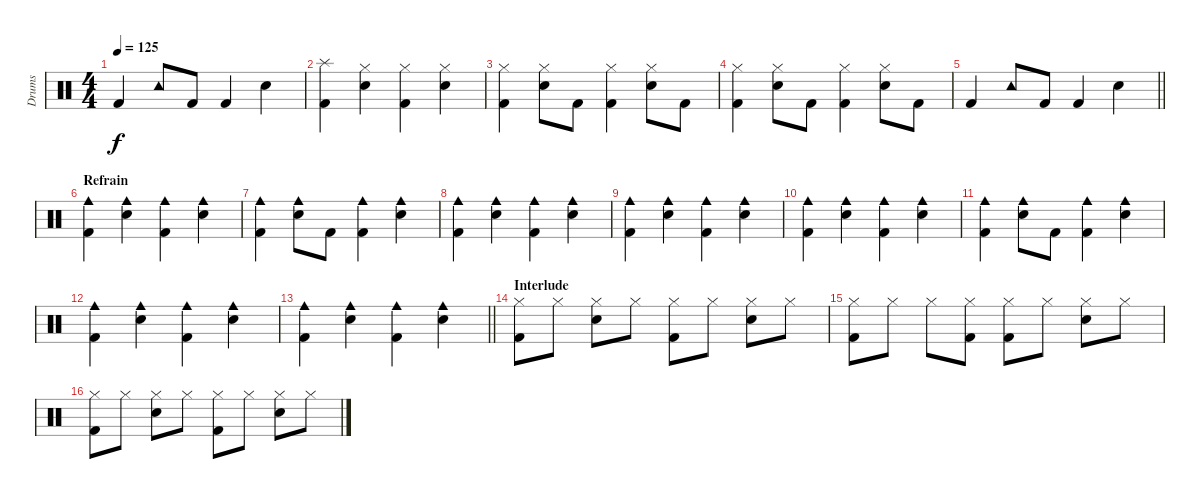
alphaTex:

\track ("Drums" "Drums") {instrument percussion}
\staff {score}
\articulation defaults
\ts (4 4)
\tempo 125
\clef neutral
\ks c "Kick (hit) 2".4{dy f} "Tambourine (hit)".8 "Kick (hit) 2".8 "Kick (hit) 2".4 "Snare (hit) 2".4
|
("Splash (hit)" "Kick (hit) 2").4 ("Hi-Hat (closed)" "Snare (hit) 2").4 ("Hi-Hat (closed)" "Kick (hit) 2").4 ("Hi-Hat (closed)" "Snare (hit) 2").4 |
("Hi-Hat (closed)" "Kick (hit) 2").4 ("Hi-Hat (closed)" "Snare (hit) 2").8 "Kick (hit) 2".8 ("Hi-Hat (closed)" "Kick (hit) 2").4 ("Hi-Hat (closed)" "Snare (hit) 2").8 "Kick (hit) 2".8 |
("Hi-Hat (closed)" "Kick (hit) 2").4 ("Hi-Hat (closed)" "Snare (hit) 2").8 "Kick (hit) 2".8 ("Hi-Hat (closed)" "Kick (hit) 2").4 ("Hi-Hat (closed)" "Snare (hit) 2").8 "Kick (hit) 2".8 |
\barLineRight lightlight "Kick (hit) 2".4 "Tambourine (hit)".8 "Kick (hit) 2".8 "Kick (hit) 2".4 "Snare (hit) 2".4
|
\section ("" "Refrain")
("Cowbell medium (hit)" "Kick (hit) 2").4 ("Cowbell medium (hit)" "Snare (hit) 2").4 ("Cowbell medium (hit)" "Kick (hit) 2").4 ("Cowbell medium (hit)" "Snare (hit) 2").4 |
("Cowbell medium (hit)" "Kick (hit) 2").4 ("Cowbell medium (hit)" "Snare (hit) 2").8 "Kick (hit) 2".8 ("Cowbell medium (hit)" "Kick (hit) 2").4 ("Cowbell medium (hit)" "Snare (hit) 2").4 |
("Cowbell medium (hit)" "Kick (hit) 2").4 ("Cowbell medium (hit)" "Snare (hit) 2").4 ("Cowbell medium (hit)" "Kick (hit) 2").4 ("Cowbell medium (hit)" "Snare (hit) 2").4 |
("Cowbell medium (hit)" "Kick (hit) 2").4 ("Cowbell medium (hit)" "Snare (hit) 2").4 ("Cowbell medium (hit)" "Kick (hit) 2").4 ("Cowbell medium (hit)" "Snare (hit) 2").4 |
("Cowbell medium (hit)" "Kick (hit) 2").4 ("Cowbell medium (hit)" "Snare (hit) 2").4 ("Cowbell medium (hit)" "Kick (hit) 2").4 ("Cowbell medium (hit)" "Snare (hit) 2").4 |
("Cowbell medium (hit)" "Kick (hit) 2").4 ("Cowbell medium (hit)" "Snare (hit) 2").8 "Kick (hit) 2".8 ("Cowbell medium (hit)" "Kick (hit) 2").4 ("Cowbell medium (hit)" "Snare (hit) 2").4 |
("Cowbell medium (hit)" "Kick (hit) 2").4 ("Cowbell medium (hit)" "Snare (hit) 2").4 ("Cowbell medium (hit)" "Kick (hit) 2").4 ("Cowbell medium (hit)" "Snare (hit) 2").4 |
\barLineRight lightlight
("Cowbell medium (hit)" "Kick (hit) 2").4 ("Cowbell medium (hit)" "Snare (hit) 2").4 ("Cowbell medium (hit)" "Kick (hit) 2").4 ("Cowbell medium (hit)" "Snare (hit) 2").4 |
\section ("" "Interlude")
("Hi-Hat (closed)" "Kick (hit) 2").8 "Hi-Hat (closed)".8 ("Hi-Hat (closed)" "Snare (hit) 2").8 "Hi-Hat (closed)".8 ("Hi-Hat (closed)" "Kick (hit) 2").8 "Hi-Hat (closed)".8 ("Hi-Hat (closed)" "Snare (hit) 2").8 "Hi-Hat (closed)".8 |
("Hi-Hat (closed)" "Kick (hit) 2").8 "Hi-Hat (closed)".8 "Hi-Hat (closed)".8 ("Hi-Hat (closed)" "Kick (hit) 2").8 ("Hi-Hat (closed)" "Kick (hit) 2").8 "Hi-Hat (closed)".8 ("Hi-Hat (closed)" "Snare (hit) 2").8 "Hi-Hat (closed)".8 |
("Hi-Hat (closed)" "Kick (hit) 2").8 "Hi-Hat (closed)".8 ("Hi-Hat (closed)" "Snare (hit) 2").8 "Hi-Hat (closed)".8 ("Hi-Hat (closed)" "Kick (hit) 2").8 "Hi-Hat (closed)".8 ("Hi-Hat (closed)" "Snare (hit) 2").8 "Hi-Hat (closed)".8
